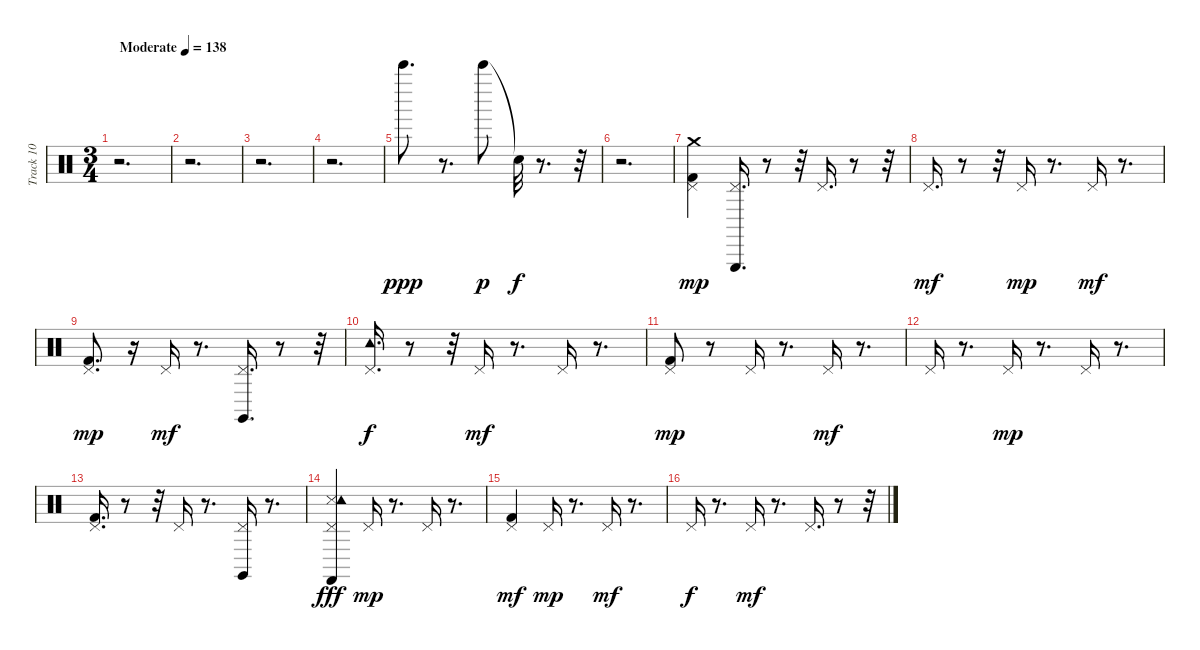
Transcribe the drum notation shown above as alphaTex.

\track ("Track 10" "Track 10") {instrument percussion}
\staff {score}
\articulation defaults
\ts (3 4)
\tempo (138 "Moderate")
\clef neutral
\ks c
r.2{d dy ppp} |
r.2{d} |
r.2{d} |
r.2{d} |
"Bell Tree (hit)".8{d} r.8{d} "Bell Tree (hit)".8{dy p} "Snare (hit)"{t}.32{dy f} r.8{d} r.32 |
r.2{d} |
("Crash medium (hit)" "Pedal Hi-Hat (hit)" "Kick (hit) 2").4{dy mp} ("Pedal Hi-Hat (hit)" "Triangle (hit)").16{d} r.8 r.32 "Pedal Hi-Hat (hit)".16{d} r.8 r.32 |
"Pedal Hi-Hat (hit)".16{d dy mf} r.8 r.32 "Pedal Hi-Hat (hit)".16{dy mp} r.8{d} "Pedal Hi-Hat (hit)".16{dy mf} r.8{d} |
("Pedal Hi-Hat (hit)" "Kick (hit) 2").8{d dy mp} r.16 "Pedal Hi-Hat (hit)".16{dy mf} r.8{d} ("Claves (hit)" "Pedal Hi-Hat (hit)").16{d} r.8 r.32 |
("Tambourine (hit)" "Pedal Hi-Hat (hit)").16{d dy f} r.8 r.32 "Pedal Hi-Hat (hit)".16{dy mf} r.8{d} "Pedal Hi-Hat (hit)".16 r.8{d} |
("Pedal Hi-Hat (hit)" "Kick (hit) 2").8{dy mp} r.8 "Pedal Hi-Hat (hit)".16 r.8{d} "Pedal Hi-Hat (hit)".16{dy mf} r.8{d} |
"Pedal Hi-Hat (hit)".16 r.8{d} "Pedal Hi-Hat (hit)".16{dy mp} r.8{d} "Pedal Hi-Hat (hit)".16 r.8{d} |
("Pedal Hi-Hat (hit)" "Kick (hit) 2").16{d} r.8 r.32 "Pedal Hi-Hat (hit)".16 r.8{d} ("Claves (hit)" "Pedal Hi-Hat (hit)").16 r.8{d} |
("Snare (side stick) 3" "Tambourine (hit)" "Pedal Hi-Hat (hit)" "Castanets (hit)").4{dy fff} "Pedal Hi-Hat (hit)".16{dy mp} r.8{d} "Pedal Hi-Hat (hit)".16 r.8{d} |
("Kick (hit) 2" "Pedal Hi-Hat (hit)").4{dy mf} "Pedal Hi-Hat (hit)".16{dy mp} r.8{d} "Pedal Hi-Hat (hit)".16{dy mf} r.8{d} |
"Pedal Hi-Hat (hit)".16{dy f} r.8{d} "Pedal Hi-Hat (hit)".16{dy mf} r.8{d} "Pedal Hi-Hat (hit)".16{d} r.8 r.32
